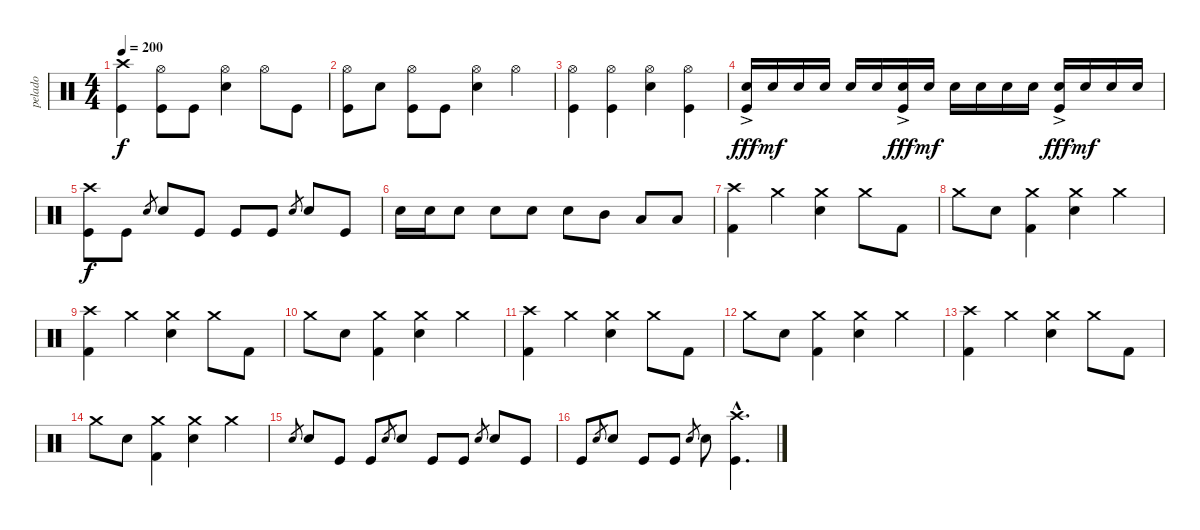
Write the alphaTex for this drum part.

\track ("pelado" "pelado") {instrument percussion}
\staff {score}
\articulation defaults
\ts (4 4)
\tempo 200
\clef neutral
\ks c
("Crash high (hit)" "Kick (hit)").4{dy f} ("Hi-Hat (open)" "Kick (hit)").8 "Kick (hit)".8 ("Hi-Hat (open)" "Electric Snare (hit)").4 "Hi-Hat (open)".8 "Kick (hit)".8 |
("Hi-Hat (open)" "Kick (hit)").8 "Electric Snare (hit)".8 ("Hi-Hat (open)" "Kick (hit)").8 "Kick (hit)".8 ("Hi-Hat (open)" "Electric Snare (hit)").4 "Hi-Hat (open)".4 |
("Hi-Hat (open)" "Kick (hit)").4 ("Hi-Hat (open)" "Kick (hit)").4 ("Hi-Hat (open)" "Electric Snare (hit)").4 ("Hi-Hat (open)" "Kick (hit)").4 |
("Electric Snare (hit)"{ac} "Kick (hit)").16{dy fff} "Electric Snare (hit)".16{dy mf} "Electric Snare (hit)".16 "Electric Snare (hit)".16 "Electric Snare (hit)".16 "Electric Snare (hit)".16 ("Electric Snare (hit)"{ac} "Kick (hit)").16{dy fff} "Electric Snare (hit)".16{dy mf} "Electric Snare (hit)".16 "Electric Snare (hit)".16 "Electric Snare (hit)".16 "Electric Snare (hit)".16 ("Electric Snare (hit)"{ac} "Kick (hit)").16{dy fff} "Electric Snare (hit)".16{dy mf} "Electric Snare (hit)".16 "Electric Snare (hit)".16 |
("Crash high (hit)" "Kick (hit)").8{dy f} "Kick (hit)".8 "Electric Snare (hit)".8{gr} "Electric Snare (hit)".8 "Kick (hit)".8 "Kick (hit)".8 "Kick (hit)".8 "Electric Snare (hit)".8{gr} "Electric Snare (hit)".8 "Kick (hit)".8 |
"Electric Snare (hit)".16 "Electric Snare (hit)".16 "Electric Snare (hit)".8 "Electric Snare (hit)".8 "Electric Snare (hit)".8 "Electric Snare (hit)".8 "Mid Tom (hit)".8 "Low Tom (hit)".8 "Low Tom (hit)".8 |
("Crash high (hit)" "Kick (hit) 2").4 "Crash medium (hit)".4 ("Crash medium (hit)" "Electric Snare (hit)").4 "Crash medium (hit)".8 "Kick (hit) 2".8 |
"Crash medium (hit)".8 "Electric Snare (hit)".8 ("Crash medium (hit)" "Kick (hit) 2").4 ("Crash medium (hit)" "Electric Snare (hit)").4 "Crash medium (hit)".4 |
("Crash high (hit)" "Kick (hit) 2").4 "Crash medium (hit)".4 ("Crash medium (hit)" "Electric Snare (hit)").4 "Crash medium (hit)".8 "Kick (hit) 2".8 |
"Crash medium (hit)".8 "Electric Snare (hit)".8 ("Crash medium (hit)" "Kick (hit) 2").4 ("Crash medium (hit)" "Electric Snare (hit)").4 "Crash medium (hit)".4 |
("Crash high (hit)" "Kick (hit) 2").4 "Crash medium (hit)".4 ("Crash medium (hit)" "Electric Snare (hit)").4 "Crash medium (hit)".8 "Kick (hit) 2".8 |
"Crash medium (hit)".8 "Electric Snare (hit)".8 ("Crash medium (hit)" "Kick (hit) 2").4 ("Crash medium (hit)" "Electric Snare (hit)").4 "Crash medium (hit)".4 |
("Crash high (hit)" "Kick (hit) 2").4 "Crash medium (hit)".4 ("Crash medium (hit)" "Electric Snare (hit)").4 "Crash medium (hit)".8 "Kick (hit) 2".8 |
"Crash medium (hit)".8 "Electric Snare (hit)".8 ("Crash medium (hit)" "Kick (hit) 2").4 ("Crash medium (hit)" "Electric Snare (hit)").4 "Crash medium (hit)".4 |
"Electric Snare (hit)".8{gr} "Electric Snare (hit)".8 "Kick (hit)".8 "Kick (hit)".8 "Electric Snare (hit)".8{gr} "Electric Snare (hit)".8 "Kick (hit)".8 "Kick (hit)".8 "Electric Snare (hit)".8{gr} "Electric Snare (hit)".8 "Kick (hit)".8 |
"Kick (hit)".8 "Electric Snare (hit)".8{gr} "Electric Snare (hit)".8 "Kick (hit)".8 "Kick (hit)".8 "Electric Snare (hit)".8{gr} "Electric Snare (hit)".8 ("Crash high (hit)"{hac} "Kick (hit)"{hac}).4{d}
